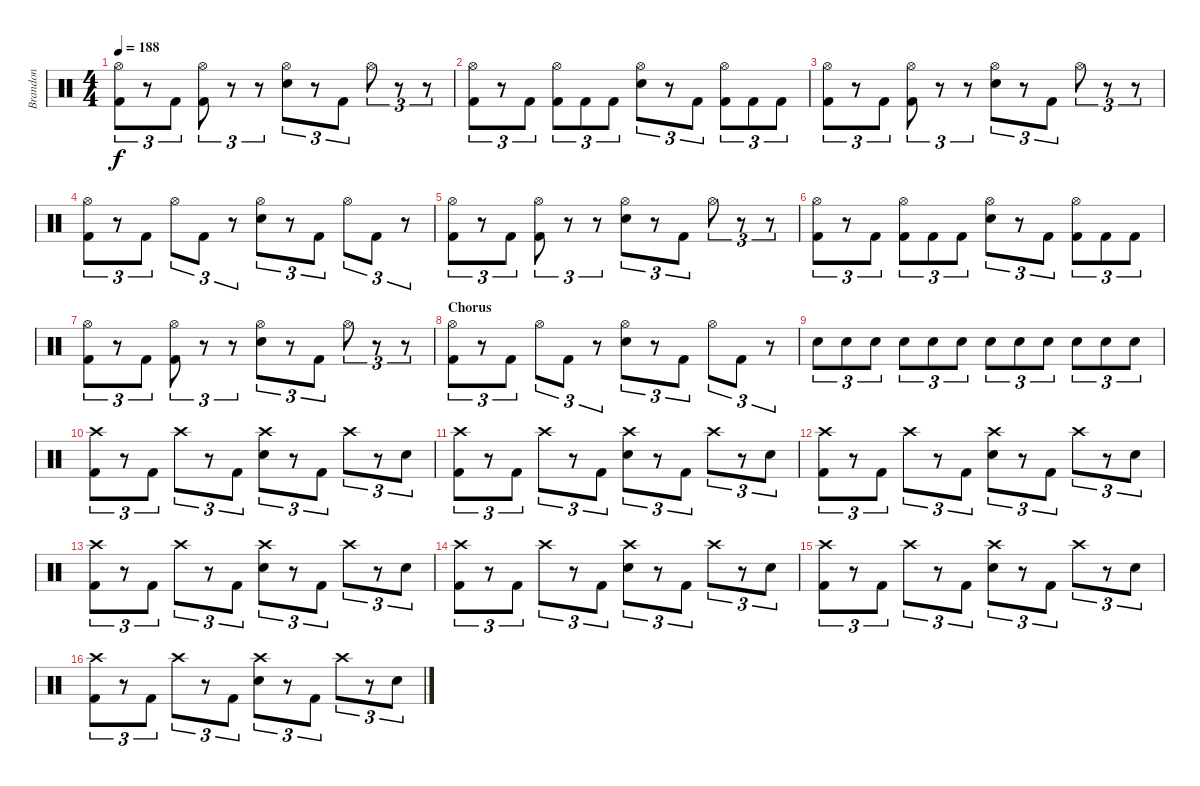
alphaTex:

\track ("Brandon" "Brandon") {instrument percussion}
\staff {score}
\articulation defaults
\ts (4 4)
\tempo 188
\clef neutral
\ks c
("Hi-Hat (open)" "Kick (hit) 2").8{tu (3 2) dy f} r.8{tu (3 2)} "Kick (hit) 2".8{tu (3 2)} ("Hi-Hat (open)" "Kick (hit) 2").8{tu (3 2)} r.8{tu (3 2)} r.8{tu (3 2)} ("Hi-Hat (open)" "Snare (hit) 2").8{tu (3 2)} r.8{tu (3 2)} "Kick (hit) 2".8{tu (3 2)} "Hi-Hat (open)".8{tu (3 2)} r.8{tu (3 2)} r.8{tu (3 2)} |
("Hi-Hat (open)" "Kick (hit) 2").8{tu (3 2)} r.8{tu (3 2)} "Kick (hit) 2".8{tu (3 2)} ("Hi-Hat (open)" "Kick (hit) 2").8{tu (3 2)} "Kick (hit) 2".8{tu (3 2)} "Kick (hit) 2".8{tu (3 2)} ("Hi-Hat (open)" "Snare (hit) 2").8{tu (3 2)} r.8{tu (3 2)} "Kick (hit) 2".8{tu (3 2)} ("Hi-Hat (open)" "Kick (hit) 2").8{tu (3 2)} "Kick (hit) 2".8{tu (3 2)} "Kick (hit) 2".8{tu (3 2)} |
("Hi-Hat (open)" "Kick (hit) 2").8{tu (3 2)} r.8{tu (3 2)} "Kick (hit) 2".8{tu (3 2)} ("Hi-Hat (open)" "Kick (hit) 2").8{tu (3 2)} r.8{tu (3 2)} r.8{tu (3 2)} ("Hi-Hat (open)" "Snare (hit) 2").8{tu (3 2)} r.8{tu (3 2)} "Kick (hit) 2".8{tu (3 2)} "Hi-Hat (open)".8{tu (3 2)} r.8{tu (3 2)} r.8{tu (3 2)} |
("Hi-Hat (open)" "Kick (hit) 2").8{tu (3 2)} r.8{tu (3 2)} "Kick (hit) 2".8{tu (3 2)} "Hi-Hat (open)".8{tu (3 2)} "Kick (hit) 2".8{tu (3 2)} r.8{tu (3 2)} ("Hi-Hat (open)" "Snare (hit) 2").8{tu (3 2)} r.8{tu (3 2)} "Kick (hit) 2".8{tu (3 2)} "Hi-Hat (open)".8{tu (3 2)} "Kick (hit) 2".8{tu (3 2)} r.8{tu (3 2)} |
("Hi-Hat (open)" "Kick (hit) 2").8{tu (3 2)} r.8{tu (3 2)} "Kick (hit) 2".8{tu (3 2)} ("Hi-Hat (open)" "Kick (hit) 2").8{tu (3 2)} r.8{tu (3 2)} r.8{tu (3 2)} ("Hi-Hat (open)" "Snare (hit) 2").8{tu (3 2)} r.8{tu (3 2)} "Kick (hit) 2".8{tu (3 2)} "Hi-Hat (open)".8{tu (3 2)} r.8{tu (3 2)} r.8{tu (3 2)} |
("Hi-Hat (open)" "Kick (hit) 2").8{tu (3 2)} r.8{tu (3 2)} "Kick (hit) 2".8{tu (3 2)} ("Hi-Hat (open)" "Kick (hit) 2").8{tu (3 2)} "Kick (hit) 2".8{tu (3 2)} "Kick (hit) 2".8{tu (3 2)} ("Hi-Hat (open)" "Snare (hit) 2").8{tu (3 2)} r.8{tu (3 2)} "Kick (hit) 2".8{tu (3 2)} ("Hi-Hat (open)" "Kick (hit) 2").8{tu (3 2)} "Kick (hit) 2".8{tu (3 2)} "Kick (hit) 2".8{tu (3 2)} |
("Hi-Hat (open)" "Kick (hit) 2").8{tu (3 2)} r.8{tu (3 2)} "Kick (hit) 2".8{tu (3 2)} ("Hi-Hat (open)" "Kick (hit) 2").8{tu (3 2)} r.8{tu (3 2)} r.8{tu (3 2)} ("Hi-Hat (open)" "Snare (hit) 2").8{tu (3 2)} r.8{tu (3 2)} "Kick (hit) 2".8{tu (3 2)} "Hi-Hat (open)".8{tu (3 2)} r.8{tu (3 2)} r.8{tu (3 2)} |
\section ("" "Chorus")
("Hi-Hat (open)" "Kick (hit) 2").8{tu (3 2)} r.8{tu (3 2)} "Kick (hit) 2".8{tu (3 2)} "Hi-Hat (open)".8{tu (3 2)} "Kick (hit) 2".8{tu (3 2)} r.8{tu (3 2)} ("Hi-Hat (open)" "Snare (hit) 2").8{tu (3 2)} r.8{tu (3 2)} "Kick (hit) 2".8{tu (3 2)} "Hi-Hat (open)".8{tu (3 2)} "Kick (hit) 2".8{tu (3 2)} r.8{tu (3 2)} |
"Snare (hit) 2".8{tu (3 2)} "Snare (hit) 2".8{tu (3 2)} "Snare (hit) 2".8{tu (3 2)} "Snare (hit) 2".8{tu (3 2)} "Snare (hit) 2".8{tu (3 2)} "Snare (hit) 2".8{tu (3 2)} "Snare (hit) 2".8{tu (3 2)} "Snare (hit) 2".8{tu (3 2)} "Snare (hit) 2".8{tu (3 2)} "Snare (hit) 2".8{tu (3 2)} "Snare (hit) 2".8{tu (3 2)} "Snare (hit) 2".8{tu (3 2)} |
("Crash high (hit)" "Kick (hit) 2").8{tu (3 2)} r.8{tu (3 2)} "Kick (hit) 2".8{tu (3 2)} "Crash high (hit)".8{tu (3 2)} r.8{tu (3 2)} "Kick (hit) 2".8{tu (3 2)} ("Crash high (hit)" "Snare (hit) 2").8{tu (3 2)} r.8{tu (3 2)} "Kick (hit) 2".8{tu (3 2)} "Crash high (hit)".8{tu (3 2)} r.8{tu (3 2)} "Snare (hit) 2".8{tu (3 2)} |
("Crash high (hit)" "Kick (hit) 2").8{tu (3 2)} r.8{tu (3 2)} "Kick (hit) 2".8{tu (3 2)} "Crash high (hit)".8{tu (3 2)} r.8{tu (3 2)} "Kick (hit) 2".8{tu (3 2)} ("Crash high (hit)" "Snare (hit) 2").8{tu (3 2)} r.8{tu (3 2)} "Kick (hit) 2".8{tu (3 2)} "Crash high (hit)".8{tu (3 2)} r.8{tu (3 2)} "Snare (hit) 2".8{tu (3 2)} |
("Crash high (hit)" "Kick (hit) 2").8{tu (3 2)} r.8{tu (3 2)} "Kick (hit) 2".8{tu (3 2)} "Crash high (hit)".8{tu (3 2)} r.8{tu (3 2)} "Kick (hit) 2".8{tu (3 2)} ("Crash high (hit)" "Snare (hit) 2").8{tu (3 2)} r.8{tu (3 2)} "Kick (hit) 2".8{tu (3 2)} "Crash high (hit)".8{tu (3 2)} r.8{tu (3 2)} "Snare (hit) 2".8{tu (3 2)} |
("Crash high (hit)" "Kick (hit) 2").8{tu (3 2)} r.8{tu (3 2)} "Kick (hit) 2".8{tu (3 2)} "Crash high (hit)".8{tu (3 2)} r.8{tu (3 2)} "Kick (hit) 2".8{tu (3 2)} ("Crash high (hit)" "Snare (hit) 2").8{tu (3 2)} r.8{tu (3 2)} "Kick (hit) 2".8{tu (3 2)} "Crash high (hit)".8{tu (3 2)} r.8{tu (3 2)} "Snare (hit) 2".8{tu (3 2)} |
("Crash high (hit)" "Kick (hit) 2").8{tu (3 2)} r.8{tu (3 2)} "Kick (hit) 2".8{tu (3 2)} "Crash high (hit)".8{tu (3 2)} r.8{tu (3 2)} "Kick (hit) 2".8{tu (3 2)} ("Crash high (hit)" "Snare (hit) 2").8{tu (3 2)} r.8{tu (3 2)} "Kick (hit) 2".8{tu (3 2)} "Crash high (hit)".8{tu (3 2)} r.8{tu (3 2)} "Snare (hit) 2".8{tu (3 2)} |
("Crash high (hit)" "Kick (hit) 2").8{tu (3 2)} r.8{tu (3 2)} "Kick (hit) 2".8{tu (3 2)} "Crash high (hit)".8{tu (3 2)} r.8{tu (3 2)} "Kick (hit) 2".8{tu (3 2)} ("Crash high (hit)" "Snare (hit) 2").8{tu (3 2)} r.8{tu (3 2)} "Kick (hit) 2".8{tu (3 2)} "Crash high (hit)".8{tu (3 2)} r.8{tu (3 2)} "Snare (hit) 2".8{tu (3 2)} |
("Crash high (hit)" "Kick (hit) 2").8{tu (3 2)} r.8{tu (3 2)} "Kick (hit) 2".8{tu (3 2)} "Crash high (hit)".8{tu (3 2)} r.8{tu (3 2)} "Kick (hit) 2".8{tu (3 2)} ("Crash high (hit)" "Snare (hit) 2").8{tu (3 2)} r.8{tu (3 2)} "Kick (hit) 2".8{tu (3 2)} "Crash high (hit)".8{tu (3 2)} r.8{tu (3 2)} "Snare (hit) 2".8{tu (3 2)}
